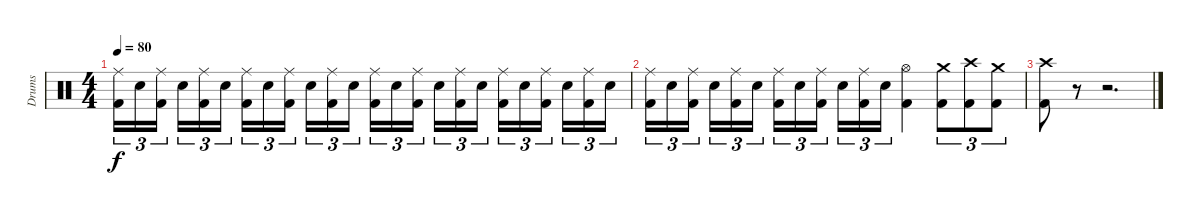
\track ("Drums" "Drums") {instrument percussion}
\staff {score}
\articulation defaults
\ts (4 4)
\tempo 80
\clef neutral
\ks c
("Ride (middle)" "Kick (hit) 2").16{tu (3 2) dy f} "Electric Snare (hit)".16{tu (3 2)} ("Ride (middle)" "Kick (hit) 2").16{tu (3 2)} "Electric Snare (hit)".16{tu (3 2)} ("Ride (middle)" "Kick (hit) 2").16{tu (3 2)} "Electric Snare (hit)".16{tu (3 2)} ("Ride (middle)" "Kick (hit) 2").16{tu (3 2)} "Electric Snare (hit)".16{tu (3 2)} ("Ride (middle)" "Kick (hit) 2").16{tu (3 2)} "Electric Snare (hit)".16{tu (3 2)} ("Ride (middle)" "Kick (hit) 2").16{tu (3 2)} "Electric Snare (hit)".16{tu (3 2)} ("Ride (middle)" "Kick (hit) 2").16{tu (3 2)} "Electric Snare (hit)".16{tu (3 2)} ("Ride (middle)" "Kick (hit) 2").16{tu (3 2)} "Electric Snare (hit)".16{tu (3 2)} ("Ride (middle)" "Kick (hit) 2").16{tu (3 2)} "Electric Snare (hit)".16{tu (3 2)} ("Ride (middle)" "Kick (hit) 2").16{tu (3 2)} "Electric Snare (hit)".16{tu (3 2)} ("Ride (middle)" "Kick (hit) 2").16{tu (3 2)} "Electric Snare (hit)".16{tu (3 2)} ("Ride (middle)" "Kick (hit) 2").16{tu (3 2)} "Electric Snare (hit)".16{tu (3 2)} |
("Ride (middle)" "Kick (hit) 2").16{tu (3 2)} "Electric Snare (hit)".16{tu (3 2)} ("Ride (middle)" "Kick (hit) 2").16{tu (3 2)} "Electric Snare (hit)".16{tu (3 2)} ("Ride (middle)" "Kick (hit) 2").16{tu (3 2)} "Electric Snare (hit)".16{tu (3 2)} ("Ride (middle)" "Kick (hit) 2").16{tu (3 2)} "Electric Snare (hit)".16{tu (3 2)} ("Ride (middle)" "Kick (hit) 2").16{tu (3 2)} "Electric Snare (hit)".16{tu (3 2)} ("Ride (middle)" "Kick (hit) 2").16{tu (3 2)} "Electric Snare (hit)".16{tu (3 2)} ("Hi-Hat (open)" "Kick (hit) 2").4 ("Crash medium (hit)" "Kick (hit) 2").8{tu (3 2)} ("Crash high (hit)" "Kick (hit) 2").8{tu (3 2)} ("Crash medium (hit)" "Kick (hit) 2").8{tu (3 2)} |
("Crash high (hit)" "Kick (hit) 2").8 r.8 r.2{d}
